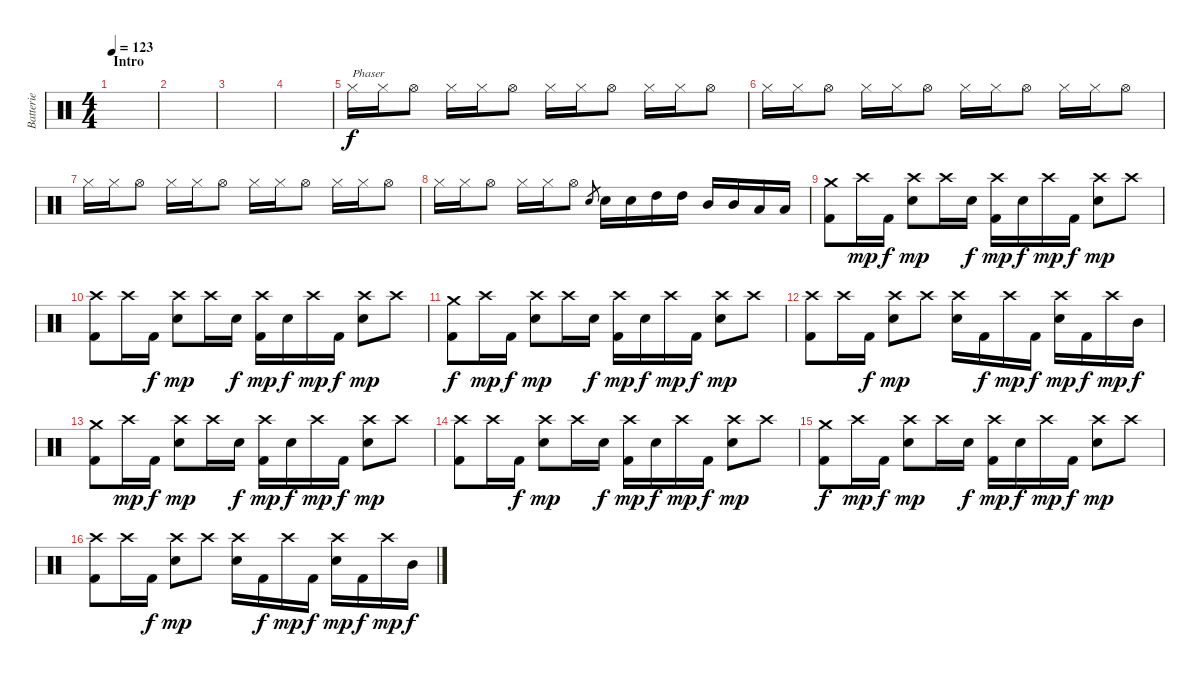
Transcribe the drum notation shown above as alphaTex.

\track ("Batterie" "Batterie") {instrument percussion}
\staff {score}
\articulation defaults
\ts (4 4)
\section ("" "Intro")
\tempo 123
\clef neutral
\ks c
|
|
|
|
"Hi-Hat (closed)".16{txt "Phaser"} "Hi-Hat (closed)".16 "Hi-Hat (open)".8 "Hi-Hat (closed)".16 "Hi-Hat (closed)".16 "Hi-Hat (open)".8 "Hi-Hat (closed)".16 "Hi-Hat (closed)".16 "Hi-Hat (open)".8 "Hi-Hat (closed)".16 "Hi-Hat (closed)".16 "Hi-Hat (open)".8 |
"Hi-Hat (closed)".16 "Hi-Hat (closed)".16 "Hi-Hat (open)".8 "Hi-Hat (closed)".16 "Hi-Hat (closed)".16 "Hi-Hat (open)".8 "Hi-Hat (closed)".16 "Hi-Hat (closed)".16 "Hi-Hat (open)".8 "Hi-Hat (closed)".16 "Hi-Hat (closed)".16 "Hi-Hat (open)".8 |
"Hi-Hat (closed)".16 "Hi-Hat (closed)".16 "Hi-Hat (open)".8 "Hi-Hat (closed)".16 "Hi-Hat (closed)".16 "Hi-Hat (open)".8 "Hi-Hat (closed)".16 "Hi-Hat (closed)".16 "Hi-Hat (open)".8 "Hi-Hat (closed)".16 "Hi-Hat (closed)".16 "Hi-Hat (open)".8 |
"Hi-Hat (closed)".16 "Hi-Hat (closed)".16 "Hi-Hat (open)".8 "Hi-Hat (closed)".16 "Hi-Hat (closed)".16 "Hi-Hat (open)".8 "Snare (hit) 2".8{gr} "Snare (hit) 2".16 "Snare (hit) 2".16 "High Tom (hit)".16 "High Tom (hit)".16 "Mid Tom (hit)".16 "Mid Tom (hit)".16 "Low Tom (hit)".16 "Low Tom (hit)".16 |
("Crash medium (hit)" "Kick (hit) 2").8 "Crash high (hit)".16{dy mp} "Kick (hit) 2".16{dy f} ("Crash high (hit)" "Snare (hit) 2").8{dy mp} "Crash high (hit)".16 "Snare (hit) 2".16{dy f} ("Crash high (hit)" "Kick (hit) 2").16{dy mp} "Snare (hit) 2".16{dy f} "Crash high (hit)".16{dy mp} "Kick (hit) 2".16{dy f} ("Crash high (hit)" "Snare (hit) 2").8{dy mp} "Crash high (hit)".8 |
("Crash high (hit)" "Kick (hit) 2").8 "Crash high (hit)".16 "Kick (hit) 2".16{dy f} ("Crash high (hit)" "Snare (hit) 2").8{dy mp} "Crash high (hit)".16 "Snare (hit) 2".16{dy f} ("Crash high (hit)" "Kick (hit) 2").16{dy mp} "Snare (hit) 2".16{dy f} "Crash high (hit)".16{dy mp} "Kick (hit) 2".16{dy f} ("Crash high (hit)" "Snare (hit) 2").8{dy mp} "Crash high (hit)".8 |
("Crash medium (hit)" "Kick (hit) 2").8{dy f} "Crash high (hit)".16{dy mp} "Kick (hit) 2".16{dy f} ("Crash high (hit)" "Snare (hit) 2").8{dy mp} "Crash high (hit)".16 "Snare (hit) 2".16{dy f} ("Crash high (hit)" "Kick (hit) 2").16{dy mp} "Snare (hit) 2".16{dy f} "Crash high (hit)".16{dy mp} "Kick (hit) 2".16{dy f} ("Crash high (hit)" "Snare (hit) 2").8{dy mp} "Crash high (hit)".8 |
("Crash high (hit)" "Kick (hit) 2").8 "Crash high (hit)".16 "Kick (hit) 2".16{dy f} ("Crash high (hit)" "Snare (hit) 2").8{dy mp} "Crash high (hit)".8 ("Crash high (hit)" "Snare (hit) 2").16 "Kick (hit) 2".16{dy f} "Crash high (hit)".16{dy mp} "Kick (hit) 2".16{dy f} ("Crash high (hit)" "Snare (hit) 2").16{dy mp} "Kick (hit) 2".16{dy f} "Crash high (hit)".16{dy mp} "Mid Tom (hit)".16{dy f} |
("Crash medium (hit)" "Kick (hit) 2").8 "Crash high (hit)".16{dy mp} "Kick (hit) 2".16{dy f} ("Crash high (hit)" "Snare (hit) 2").8{dy mp} "Crash high (hit)".16 "Snare (hit) 2".16{dy f} ("Crash high (hit)" "Kick (hit) 2").16{dy mp} "Snare (hit) 2".16{dy f} "Crash high (hit)".16{dy mp} "Kick (hit) 2".16{dy f} ("Crash high (hit)" "Snare (hit) 2").8{dy mp} "Crash high (hit)".8 |
("Crash high (hit)" "Kick (hit) 2").8 "Crash high (hit)".16 "Kick (hit) 2".16{dy f} ("Crash high (hit)" "Snare (hit) 2").8{dy mp} "Crash high (hit)".16 "Snare (hit) 2".16{dy f} ("Crash high (hit)" "Kick (hit) 2").16{dy mp} "Snare (hit) 2".16{dy f} "Crash high (hit)".16{dy mp} "Kick (hit) 2".16{dy f} ("Crash high (hit)" "Snare (hit) 2").8{dy mp} "Crash high (hit)".8 |
("Crash medium (hit)" "Kick (hit) 2").8{dy f} "Crash high (hit)".16{dy mp} "Kick (hit) 2".16{dy f} ("Crash high (hit)" "Snare (hit) 2").8{dy mp} "Crash high (hit)".16 "Snare (hit) 2".16{dy f} ("Crash high (hit)" "Kick (hit) 2").16{dy mp} "Snare (hit) 2".16{dy f} "Crash high (hit)".16{dy mp} "Kick (hit) 2".16{dy f} ("Crash high (hit)" "Snare (hit) 2").8{dy mp} "Crash high (hit)".8 |
("Crash high (hit)" "Kick (hit) 2").8 "Crash high (hit)".16 "Kick (hit) 2".16{dy f} ("Crash high (hit)" "Snare (hit) 2").8{dy mp} "Crash high (hit)".8 ("Crash high (hit)" "Snare (hit) 2").16 "Kick (hit) 2".16{dy f} "Crash high (hit)".16{dy mp} "Kick (hit) 2".16{dy f} ("Crash high (hit)" "Snare (hit) 2").16{dy mp} "Kick (hit) 2".16{dy f} "Crash high (hit)".16{dy mp} "Mid Tom (hit)".16{dy f}
